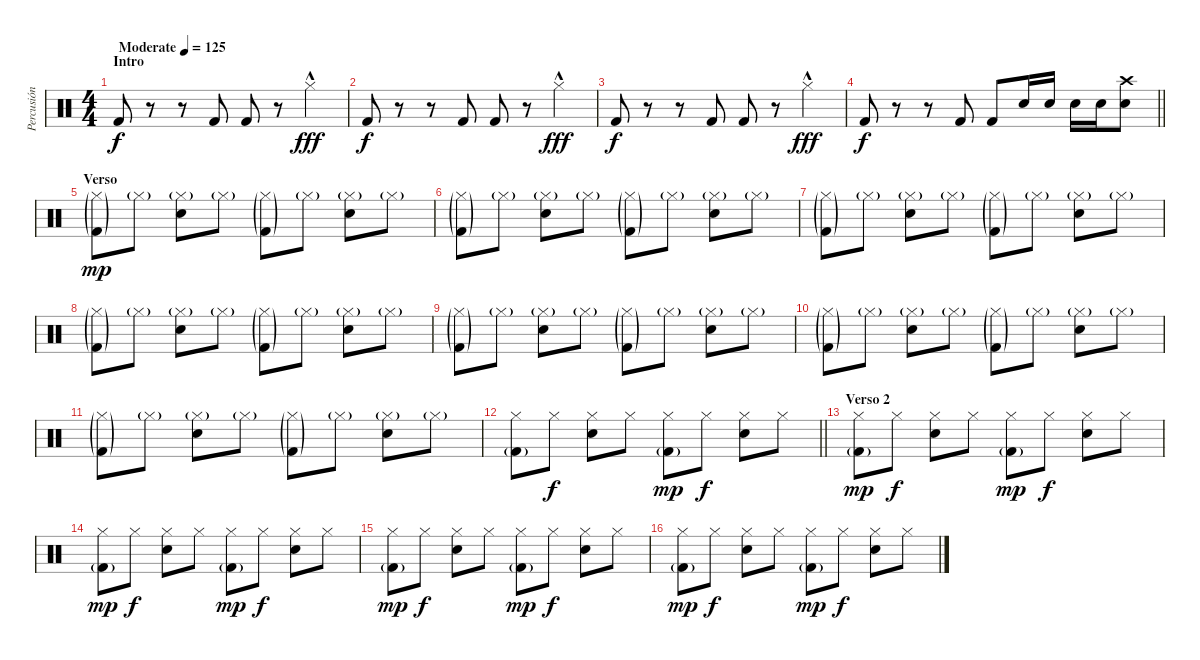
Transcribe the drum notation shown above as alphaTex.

\track ("Percusión" "Percusión") {instrument percussion}
\staff {score}
\articulation defaults
\ts (4 4)
\section ("" "Intro")
\tempo (125 "Moderate")
\clef neutral
\ks c "Kick (hit) 2".8{dy f}
r.8 r.8 "Kick (hit) 2".8 "Kick (hit) 2".8 r.8 "Hi-Hat (closed)"{hac}.4{dy fff} |
"Kick (hit) 2".8{dy f} r.8 r.8 "Kick (hit) 2".8 "Kick (hit) 2".8 r.8 "Hi-Hat (closed)"{hac}.4{dy fff} |
"Kick (hit) 2".8{dy f} r.8 r.8 "Kick (hit) 2".8 "Kick (hit) 2".8 r.8 "Hi-Hat (closed)"{hac}.4{dy fff} |
\barLineRight lightlight "Kick (hit) 2".8{dy f}
r.8 r.8 "Kick (hit) 2".8 "Kick (hit) 2".8 "Snare (hit) 2".16 "Snare (hit) 2".16 "Snare (hit) 2".16 "Snare (hit) 2".16 ("Crash high (hit)" "Snare (hit) 2").8 |
\section ("" "Verso")
("Hi-Hat (closed)"{g} "Kick (hit) 2"{g}).8{dy mp} "Hi-Hat (closed)"{g}.8 ("Hi-Hat (closed)"{g} "Snare (hit) 2").8 "Hi-Hat (closed)"{g}.8 ("Hi-Hat (closed)"{g} "Kick (hit) 2"{g}).8 "Hi-Hat (closed)"{g}.8 ("Hi-Hat (closed)"{g} "Snare (hit) 2").8 "Hi-Hat (closed)"{g}.8 |
("Hi-Hat (closed)"{g} "Kick (hit) 2"{g}).8 "Hi-Hat (closed)"{g}.8 ("Hi-Hat (closed)"{g} "Snare (hit) 2").8 "Hi-Hat (closed)"{g}.8 ("Hi-Hat (closed)"{g} "Kick (hit) 2"{g}).8 "Hi-Hat (closed)"{g}.8 ("Hi-Hat (closed)"{g} "Snare (hit) 2").8 "Hi-Hat (closed)"{g}.8 |
("Hi-Hat (closed)"{g} "Kick (hit) 2"{g}).8 "Hi-Hat (closed)"{g}.8 ("Hi-Hat (closed)"{g} "Snare (hit) 2").8 "Hi-Hat (closed)"{g}.8 ("Hi-Hat (closed)"{g} "Kick (hit) 2"{g}).8 "Hi-Hat (closed)"{g}.8 ("Hi-Hat (closed)"{g} "Snare (hit) 2").8 "Hi-Hat (closed)"{g}.8 |
("Hi-Hat (closed)"{g} "Kick (hit) 2"{g}).8 "Hi-Hat (closed)"{g}.8 ("Hi-Hat (closed)"{g} "Snare (hit) 2").8 "Hi-Hat (closed)"{g}.8 ("Hi-Hat (closed)"{g} "Kick (hit) 2"{g}).8 "Hi-Hat (closed)"{g}.8 ("Hi-Hat (closed)"{g} "Snare (hit) 2").8 "Hi-Hat (closed)"{g}.8 |
("Hi-Hat (closed)"{g} "Kick (hit) 2"{g}).8 "Hi-Hat (closed)"{g}.8 ("Hi-Hat (closed)"{g} "Snare (hit) 2").8 "Hi-Hat (closed)"{g}.8 ("Hi-Hat (closed)"{g} "Kick (hit) 2"{g}).8 "Hi-Hat (closed)"{g}.8 ("Hi-Hat (closed)"{g} "Snare (hit) 2").8 "Hi-Hat (closed)"{g}.8 |
("Hi-Hat (closed)"{g} "Kick (hit) 2"{g}).8 "Hi-Hat (closed)"{g}.8 ("Hi-Hat (closed)"{g} "Snare (hit) 2").8 "Hi-Hat (closed)"{g}.8 ("Hi-Hat (closed)"{g} "Kick (hit) 2"{g}).8 "Hi-Hat (closed)"{g}.8 ("Hi-Hat (closed)"{g} "Snare (hit) 2").8 "Hi-Hat (closed)"{g}.8 |
("Hi-Hat (closed)"{g} "Kick (hit) 2"{g}).8 "Hi-Hat (closed)"{g}.8 ("Hi-Hat (closed)"{g} "Snare (hit) 2").8 "Hi-Hat (closed)"{g}.8 ("Hi-Hat (closed)"{g} "Kick (hit) 2"{g}).8 "Hi-Hat (closed)"{g}.8 ("Hi-Hat (closed)"{g} "Snare (hit) 2").8 "Hi-Hat (closed)"{g}.8 |
\barLineRight lightlight
("Hi-Hat (closed)" "Kick (hit) 2"{g}).8 "Hi-Hat (closed)".8{dy f} ("Hi-Hat (closed)" "Snare (hit) 2").8 "Hi-Hat (closed)".8 ("Hi-Hat (closed)" "Kick (hit) 2"{g}).8{dy mp} "Hi-Hat (closed)".8{dy f} ("Hi-Hat (closed)" "Snare (hit) 2").8 "Hi-Hat (closed)".8 |
\section ("" "Verso 2")
("Hi-Hat (closed)" "Kick (hit) 2"{g}).8{dy mp} "Hi-Hat (closed)".8{dy f} ("Hi-Hat (closed)" "Snare (hit) 2").8 "Hi-Hat (closed)".8 ("Hi-Hat (closed)" "Kick (hit) 2"{g}).8{dy mp} "Hi-Hat (closed)".8{dy f} ("Hi-Hat (closed)" "Snare (hit) 2").8 "Hi-Hat (closed)".8 |
("Hi-Hat (closed)" "Kick (hit) 2"{g}).8{dy mp} "Hi-Hat (closed)".8{dy f} ("Hi-Hat (closed)" "Snare (hit) 2").8 "Hi-Hat (closed)".8 ("Hi-Hat (closed)" "Kick (hit) 2"{g}).8{dy mp} "Hi-Hat (closed)".8{dy f} ("Hi-Hat (closed)" "Snare (hit) 2").8 "Hi-Hat (closed)".8 |
("Hi-Hat (closed)" "Kick (hit) 2"{g}).8{dy mp} "Hi-Hat (closed)".8{dy f} ("Hi-Hat (closed)" "Snare (hit) 2").8 "Hi-Hat (closed)".8 ("Hi-Hat (closed)" "Kick (hit) 2"{g}).8{dy mp} "Hi-Hat (closed)".8{dy f} ("Hi-Hat (closed)" "Snare (hit) 2").8 "Hi-Hat (closed)".8 |
("Hi-Hat (closed)" "Kick (hit) 2"{g}).8{dy mp} "Hi-Hat (closed)".8{dy f} ("Hi-Hat (closed)" "Snare (hit) 2").8 "Hi-Hat (closed)".8 ("Hi-Hat (closed)" "Kick (hit) 2"{g}).8{dy mp} "Hi-Hat (closed)".8{dy f} ("Hi-Hat (closed)" "Snare (hit) 2").8 "Hi-Hat (closed)".8
